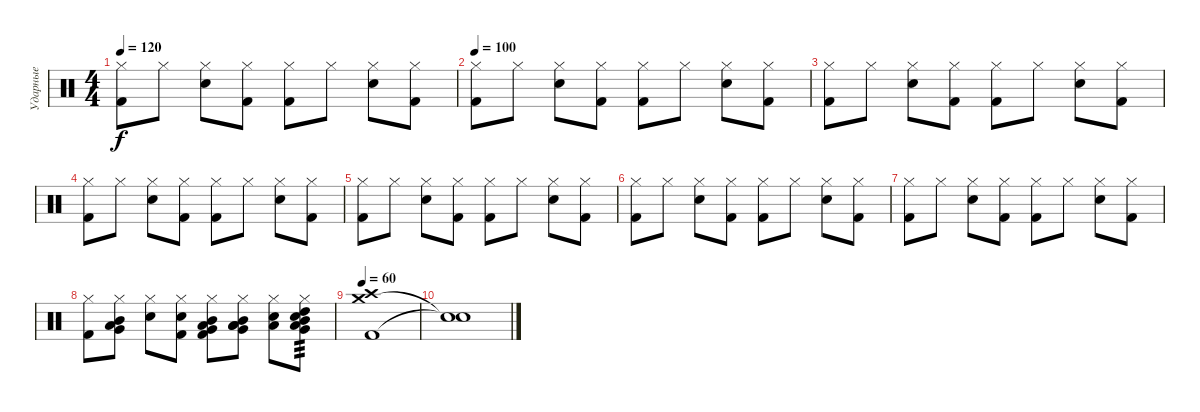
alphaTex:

\track ("Ударные" "Ударные") {instrument percussion}
\staff {score}
\articulation defaults
\ts (4 4)
\tempo 120
\clef neutral
\ks c
("Kick (hit) 2" "Hi-Hat (closed)").8{dy f} "Hi-Hat (closed)".8 ("Electric Snare (hit)" "Hi-Hat (closed)").8 ("Kick (hit) 2" "Hi-Hat (closed)").8 ("Kick (hit) 2" "Hi-Hat (closed)").8 "Hi-Hat (closed)".8 ("Electric Snare (hit)" "Hi-Hat (closed)").8 ("Kick (hit) 2" "Hi-Hat (closed)").8 |
\tempo 100
("Kick (hit) 2" "Hi-Hat (closed)").8 "Hi-Hat (closed)".8 ("Electric Snare (hit)" "Hi-Hat (closed)").8 ("Kick (hit) 2" "Hi-Hat (closed)").8 ("Kick (hit) 2" "Hi-Hat (closed)").8 "Hi-Hat (closed)".8 ("Electric Snare (hit)" "Hi-Hat (closed)").8 ("Kick (hit) 2" "Hi-Hat (closed)").8 |
("Kick (hit) 2" "Hi-Hat (closed)").8 "Hi-Hat (closed)".8 ("Electric Snare (hit)" "Hi-Hat (closed)").8 ("Kick (hit) 2" "Hi-Hat (closed)").8 ("Kick (hit) 2" "Hi-Hat (closed)").8 "Hi-Hat (closed)".8 ("Electric Snare (hit)" "Hi-Hat (closed)").8 ("Kick (hit) 2" "Hi-Hat (closed)").8 |
("Kick (hit) 2" "Hi-Hat (closed)").8 "Hi-Hat (closed)".8 ("Electric Snare (hit)" "Hi-Hat (closed)").8 ("Kick (hit) 2" "Hi-Hat (closed)").8 ("Kick (hit) 2" "Hi-Hat (closed)").8 "Hi-Hat (closed)".8 ("Electric Snare (hit)" "Hi-Hat (closed)").8 ("Kick (hit) 2" "Hi-Hat (closed)").8 |
("Kick (hit) 2" "Hi-Hat (closed)").8 "Hi-Hat (closed)".8 ("Electric Snare (hit)" "Hi-Hat (closed)").8 ("Kick (hit) 2" "Hi-Hat (closed)").8 ("Kick (hit) 2" "Hi-Hat (closed)").8 "Hi-Hat (closed)".8 ("Electric Snare (hit)" "Hi-Hat (closed)").8 ("Kick (hit) 2" "Hi-Hat (closed)").8 |
("Kick (hit) 2" "Hi-Hat (closed)").8 "Hi-Hat (closed)".8 ("Electric Snare (hit)" "Hi-Hat (closed)").8 ("Kick (hit) 2" "Hi-Hat (closed)").8 ("Kick (hit) 2" "Hi-Hat (closed)").8 "Hi-Hat (closed)".8 ("Electric Snare (hit)" "Hi-Hat (closed)").8 ("Kick (hit) 2" "Hi-Hat (closed)").8 |
("Kick (hit) 2" "Hi-Hat (closed)").8 "Hi-Hat (closed)".8 ("Electric Snare (hit)" "Hi-Hat (closed)").8 ("Kick (hit) 2" "Hi-Hat (closed)").8 ("Kick (hit) 2" "Hi-Hat (closed)").8 "Hi-Hat (closed)".8 ("Electric Snare (hit)" "Hi-Hat (closed)").8 ("Kick (hit) 2" "Hi-Hat (closed)").8 |
("Kick (hit) 2" "Hi-Hat (closed)").8 ("Hi-Hat (closed)" "Mid Tom (hit)" "Low Tom (hit)" "Very Low Tom (hit)").8 ("Electric Snare (hit)" "Hi-Hat (closed)").8 ("Kick (hit) 2" "Hi-Hat (closed)" "Electric Snare (hit)").8 ("Hi-Hat (closed)" "Mid Tom (hit)" "Low Tom (hit)" "Very Low Tom (hit)" "Kick (hit) 2").8 ("Hi-Hat (closed)" "Mid Tom (hit)" "Low Tom (hit)" "Very Low Tom (hit)" "Low Floor Tom (hit)").8 ("Electric Snare (hit)" "Hi-Hat (closed)" "Low Floor Tom (hit)").8 ("Electric Snare (hit)" "Hi-Hat (closed)" "Very Low Tom (hit)" "Low Tom (hit)" "Mid Tom (hit)" "High Tom (hit)").8{tp 3} |
\tempo 60
("Kick (hit) 2" "Crash medium (hit)" "Crash high (hit)").1 |
("Snare (hit)"{t} "Snare (hit)"{t}).1
